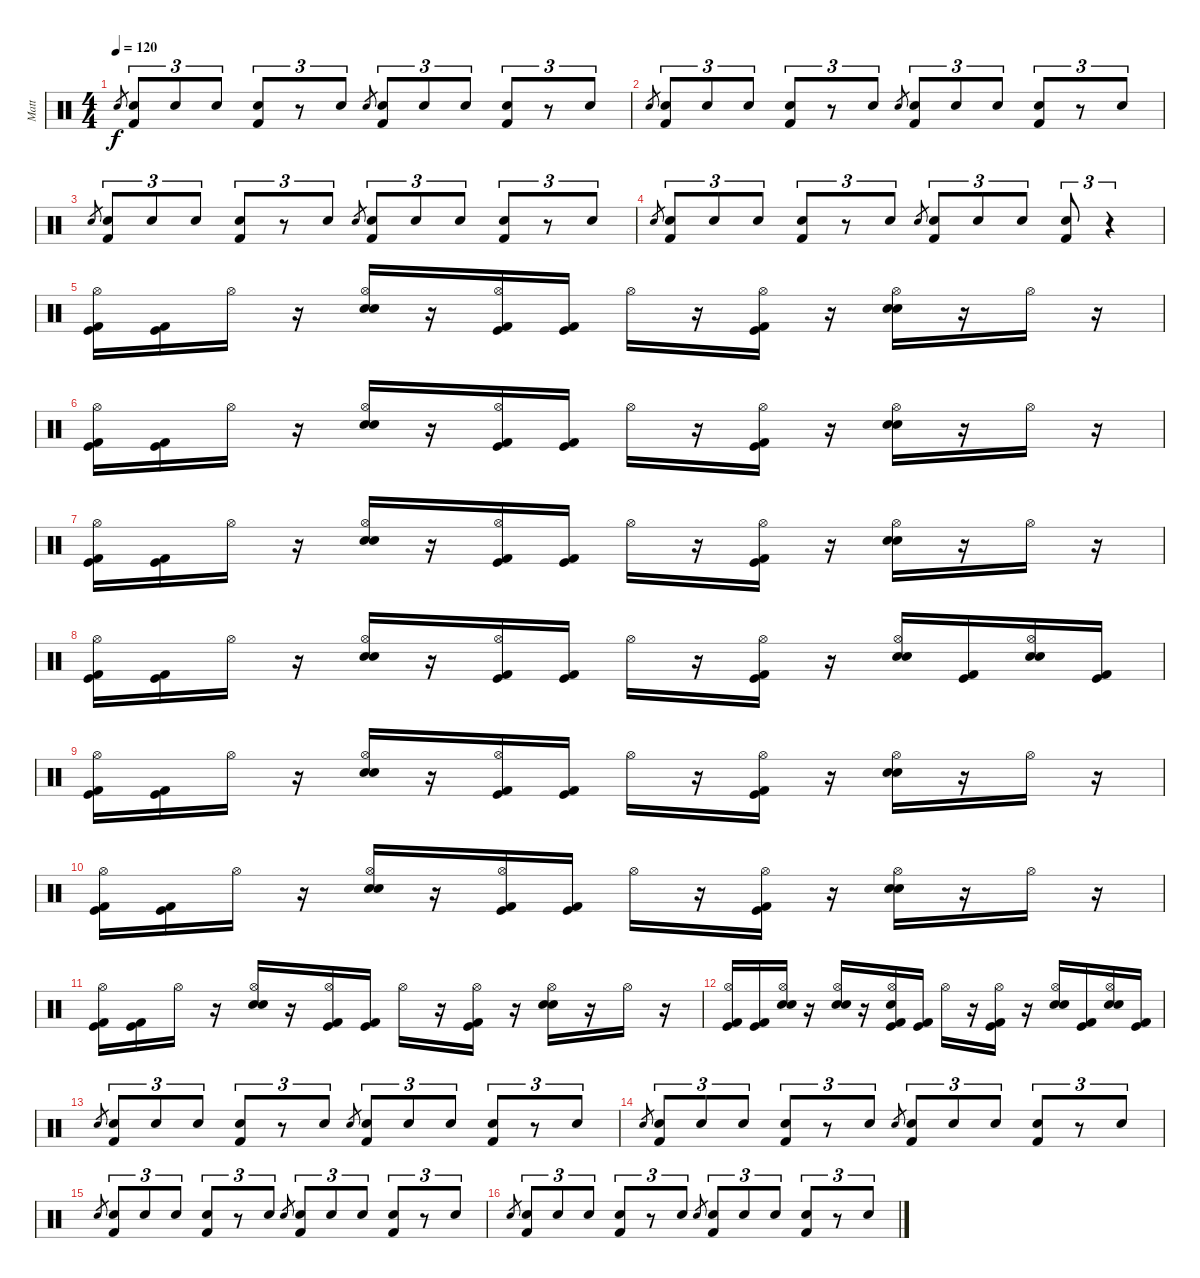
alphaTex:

\track ("Matt" "Matt") {instrument percussion}
\staff {score}
\articulation defaults
\ts (4 4)
\tempo 120
\clef neutral
\ks c "Electric Snare (hit)".8{gr dy f}
("Electric Snare (hit)" "Kick (hit) 2").8{tu (3 2)} "Electric Snare (hit)".8{tu (3 2)} "Electric Snare (hit)".8{tu (3 2)} ("Electric Snare (hit)" "Kick (hit) 2").8{tu (3 2)} r.8{tu (3 2)} "Electric Snare (hit)".8{tu (3 2)} "Electric Snare (hit)".8{gr} ("Electric Snare (hit)" "Kick (hit) 2").8{tu (3 2)} "Electric Snare (hit)".8{tu (3 2)} "Electric Snare (hit)".8{tu (3 2)} ("Electric Snare (hit)" "Kick (hit) 2").8{tu (3 2)} r.8{tu (3 2)} "Electric Snare (hit)".8{tu (3 2)} |
"Electric Snare (hit)".8{gr} ("Electric Snare (hit)" "Kick (hit) 2").8{tu (3 2)} "Electric Snare (hit)".8{tu (3 2)} "Electric Snare (hit)".8{tu (3 2)} ("Electric Snare (hit)" "Kick (hit) 2").8{tu (3 2)} r.8{tu (3 2)} "Electric Snare (hit)".8{tu (3 2)} "Electric Snare (hit)".8{gr} ("Electric Snare (hit)" "Kick (hit) 2").8{tu (3 2)} "Electric Snare (hit)".8{tu (3 2)} "Electric Snare (hit)".8{tu (3 2)} ("Electric Snare (hit)" "Kick (hit) 2").8{tu (3 2)} r.8{tu (3 2)} "Electric Snare (hit)".8{tu (3 2)} |
"Electric Snare (hit)".8{gr} ("Electric Snare (hit)" "Kick (hit) 2").8{tu (3 2)} "Electric Snare (hit)".8{tu (3 2)} "Electric Snare (hit)".8{tu (3 2)} ("Electric Snare (hit)" "Kick (hit) 2").8{tu (3 2)} r.8{tu (3 2)} "Electric Snare (hit)".8{tu (3 2)} "Electric Snare (hit)".8{gr} ("Electric Snare (hit)" "Kick (hit) 2").8{tu (3 2)} "Electric Snare (hit)".8{tu (3 2)} "Electric Snare (hit)".8{tu (3 2)} ("Electric Snare (hit)" "Kick (hit) 2").8{tu (3 2)} r.8{tu (3 2)} "Electric Snare (hit)".8{tu (3 2)} |
"Electric Snare (hit)".8{gr} ("Electric Snare (hit)" "Kick (hit) 2").8{tu (3 2)} "Electric Snare (hit)".8{tu (3 2)} "Electric Snare (hit)".8{tu (3 2)} ("Electric Snare (hit)" "Kick (hit) 2").8{tu (3 2)} r.8{tu (3 2)} "Electric Snare (hit)".8{tu (3 2)} "Electric Snare (hit)".8{gr} ("Electric Snare (hit)" "Kick (hit) 2").8{tu (3 2)} "Electric Snare (hit)".8{tu (3 2)} "Electric Snare (hit)".8{tu (3 2)} ("Electric Snare (hit)" "Kick (hit) 2").8{tu (3 2)} r.4{tu (3 2)} |
("Hi-Hat (open)" "Kick (hit)" "Kick (hit) 2").16 ("Kick (hit)" "Kick (hit) 2").16 "Hi-Hat (open)".16 r.16 ("Hi-Hat (open)" "Electric Snare (hit)" "Snare (hit) 2").16 r.16 ("Hi-Hat (open)" "Kick (hit)" "Kick (hit) 2").16 ("Kick (hit)" "Kick (hit) 2").16 "Hi-Hat (open)".16 r.16 ("Hi-Hat (open)" "Kick (hit)" "Kick (hit) 2").16 r.16 ("Hi-Hat (open)" "Electric Snare (hit)" "Snare (hit) 2").16 r.16 "Hi-Hat (open)".16 r.16 |
("Hi-Hat (open)" "Kick (hit)" "Kick (hit) 2").16 ("Kick (hit)" "Kick (hit) 2").16 "Hi-Hat (open)".16 r.16 ("Hi-Hat (open)" "Electric Snare (hit)" "Snare (hit) 2").16 r.16 ("Hi-Hat (open)" "Kick (hit)" "Kick (hit) 2").16 ("Kick (hit)" "Kick (hit) 2").16 "Hi-Hat (open)".16 r.16 ("Hi-Hat (open)" "Kick (hit)" "Kick (hit) 2").16 r.16 ("Hi-Hat (open)" "Electric Snare (hit)" "Snare (hit) 2").16 r.16 "Hi-Hat (open)".16 r.16 |
("Hi-Hat (open)" "Kick (hit)" "Kick (hit) 2").16 ("Kick (hit)" "Kick (hit) 2").16 "Hi-Hat (open)".16 r.16 ("Hi-Hat (open)" "Electric Snare (hit)" "Snare (hit) 2").16 r.16 ("Hi-Hat (open)" "Kick (hit)" "Kick (hit) 2").16 ("Kick (hit)" "Kick (hit) 2").16 "Hi-Hat (open)".16 r.16 ("Hi-Hat (open)" "Kick (hit)" "Kick (hit) 2").16 r.16 ("Hi-Hat (open)" "Electric Snare (hit)" "Snare (hit) 2").16 r.16 "Hi-Hat (open)".16 r.16 |
("Hi-Hat (open)" "Kick (hit)" "Kick (hit) 2").16 ("Kick (hit)" "Kick (hit) 2").16 "Hi-Hat (open)".16 r.16 ("Hi-Hat (open)" "Electric Snare (hit)" "Snare (hit) 2").16 r.16 ("Hi-Hat (open)" "Kick (hit)" "Kick (hit) 2").16 ("Kick (hit)" "Kick (hit) 2").16 "Hi-Hat (open)".16 r.16 ("Hi-Hat (open)" "Kick (hit)" "Kick (hit) 2").16 r.16 ("Hi-Hat (open)" "Electric Snare (hit)" "Snare (hit) 2").16 ("Kick (hit)" "Kick (hit) 2").16 ("Hi-Hat (open)" "Electric Snare (hit)" "Snare (hit) 2").16 ("Kick (hit)" "Kick (hit) 2").16 |
("Hi-Hat (open)" "Kick (hit)" "Kick (hit) 2").16 ("Kick (hit)" "Kick (hit) 2").16 "Hi-Hat (open)".16 r.16 ("Hi-Hat (open)" "Electric Snare (hit)" "Snare (hit) 2").16 r.16 ("Hi-Hat (open)" "Kick (hit)" "Kick (hit) 2").16 ("Kick (hit)" "Kick (hit) 2").16 "Hi-Hat (open)".16 r.16 ("Hi-Hat (open)" "Kick (hit)" "Kick (hit) 2").16 r.16 ("Hi-Hat (open)" "Electric Snare (hit)" "Snare (hit) 2").16 r.16 "Hi-Hat (open)".16 r.16 |
("Hi-Hat (open)" "Kick (hit)" "Kick (hit) 2").16 ("Kick (hit)" "Kick (hit) 2").16 "Hi-Hat (open)".16 r.16 ("Hi-Hat (open)" "Electric Snare (hit)" "Snare (hit) 2").16 r.16 ("Hi-Hat (open)" "Kick (hit)" "Kick (hit) 2").16 ("Kick (hit)" "Kick (hit) 2").16 "Hi-Hat (open)".16 r.16 ("Hi-Hat (open)" "Kick (hit)" "Kick (hit) 2").16 r.16 ("Hi-Hat (open)" "Electric Snare (hit)" "Snare (hit) 2").16 r.16 "Hi-Hat (open)".16 r.16 |
("Hi-Hat (open)" "Kick (hit)" "Kick (hit) 2").16 ("Kick (hit)" "Kick (hit) 2").16 "Hi-Hat (open)".16 r.16 ("Hi-Hat (open)" "Electric Snare (hit)" "Snare (hit) 2").16 r.16 ("Hi-Hat (open)" "Kick (hit)" "Kick (hit) 2").16 ("Kick (hit)" "Kick (hit) 2").16 "Hi-Hat (open)".16 r.16 ("Hi-Hat (open)" "Kick (hit)" "Kick (hit) 2").16 r.16 ("Hi-Hat (open)" "Electric Snare (hit)" "Snare (hit) 2").16 r.16 "Hi-Hat (open)".16 r.16 |
("Hi-Hat (open)" "Kick (hit)" "Kick (hit) 2").16 ("Kick (hit)" "Kick (hit) 2").16 ("Hi-Hat (open)" "Electric Snare (hit)" "Snare (hit) 2").16 r.16 ("Hi-Hat (open)" "Electric Snare (hit)" "Snare (hit) 2").16 r.16 ("Hi-Hat (open)" "Snare (hit)" "Kick (hit)" "Kick (hit) 2").16 ("Kick (hit)" "Kick (hit) 2").16 "Hi-Hat (open)".16 r.16 ("Hi-Hat (open)" "Kick (hit)" "Kick (hit) 2").16 r.16 ("Hi-Hat (open)" "Electric Snare (hit)" "Snare (hit) 2").16 ("Kick (hit)" "Kick (hit) 2").16 ("Hi-Hat (open)" "Electric Snare (hit)" "Snare (hit) 2").16 ("Kick (hit)" "Kick (hit) 2").16 |
"Electric Snare (hit)".8{gr} ("Electric Snare (hit)" "Kick (hit) 2").8{tu (3 2)} "Electric Snare (hit)".8{tu (3 2)} "Electric Snare (hit)".8{tu (3 2)} ("Electric Snare (hit)" "Kick (hit) 2").8{tu (3 2)} r.8{tu (3 2)} "Electric Snare (hit)".8{tu (3 2)} "Electric Snare (hit)".8{gr} ("Electric Snare (hit)" "Kick (hit) 2").8{tu (3 2)} "Electric Snare (hit)".8{tu (3 2)} "Electric Snare (hit)".8{tu (3 2)} ("Electric Snare (hit)" "Kick (hit) 2").8{tu (3 2)} r.8{tu (3 2)} "Electric Snare (hit)".8{tu (3 2)} |
"Electric Snare (hit)".8{gr} ("Electric Snare (hit)" "Kick (hit) 2").8{tu (3 2)} "Electric Snare (hit)".8{tu (3 2)} "Electric Snare (hit)".8{tu (3 2)} ("Electric Snare (hit)" "Kick (hit) 2").8{tu (3 2)} r.8{tu (3 2)} "Electric Snare (hit)".8{tu (3 2)} "Electric Snare (hit)".8{gr} ("Electric Snare (hit)" "Kick (hit) 2").8{tu (3 2)} "Electric Snare (hit)".8{tu (3 2)} "Electric Snare (hit)".8{tu (3 2)} ("Electric Snare (hit)" "Kick (hit) 2").8{tu (3 2)} r.8{tu (3 2)} "Electric Snare (hit)".8{tu (3 2)} |
"Electric Snare (hit)".8{gr} ("Electric Snare (hit)" "Kick (hit) 2").8{tu (3 2)} "Electric Snare (hit)".8{tu (3 2)} "Electric Snare (hit)".8{tu (3 2)} ("Electric Snare (hit)" "Kick (hit) 2").8{tu (3 2)} r.8{tu (3 2)} "Electric Snare (hit)".8{tu (3 2)} "Electric Snare (hit)".8{gr} ("Electric Snare (hit)" "Kick (hit) 2").8{tu (3 2)} "Electric Snare (hit)".8{tu (3 2)} "Electric Snare (hit)".8{tu (3 2)} ("Electric Snare (hit)" "Kick (hit) 2").8{tu (3 2)} r.8{tu (3 2)} "Electric Snare (hit)".8{tu (3 2)} |
"Electric Snare (hit)".8{gr} ("Electric Snare (hit)" "Kick (hit) 2").8{tu (3 2)} "Electric Snare (hit)".8{tu (3 2)} "Electric Snare (hit)".8{tu (3 2)} ("Electric Snare (hit)" "Kick (hit) 2").8{tu (3 2)} r.8{tu (3 2)} "Electric Snare (hit)".8{tu (3 2)} "Electric Snare (hit)".8{gr} ("Electric Snare (hit)" "Kick (hit) 2").8{tu (3 2)} "Electric Snare (hit)".8{tu (3 2)} "Electric Snare (hit)".8{tu (3 2)} ("Electric Snare (hit)" "Kick (hit) 2").8{tu (3 2)} r.8{tu (3 2)} "Electric Snare (hit)".8{tu (3 2)}
